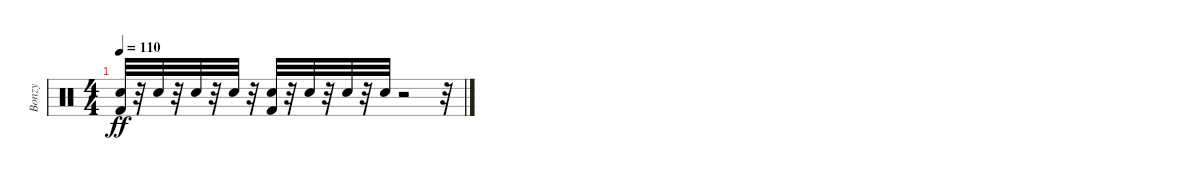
\track ("Bonzy" "Bonzy") {instrument percussion}
\staff {score}
\articulation defaults
\ts (4 4)
\tempo 110
\clef neutral
\ks c
("Kick (hit) 2" "Electric Snare (hit)").32{dy ff} r.32 "Electric Snare (hit)".32 r.32 "Electric Snare (hit)".32 r.32 "Electric Snare (hit)".32 r.32 ("Kick (hit) 2" "Electric Snare (hit)").32 r.32 "Electric Snare (hit)".32 r.32 "Electric Snare (hit)".32 r.32 "Electric Snare (hit)".32 r.2 r.32
